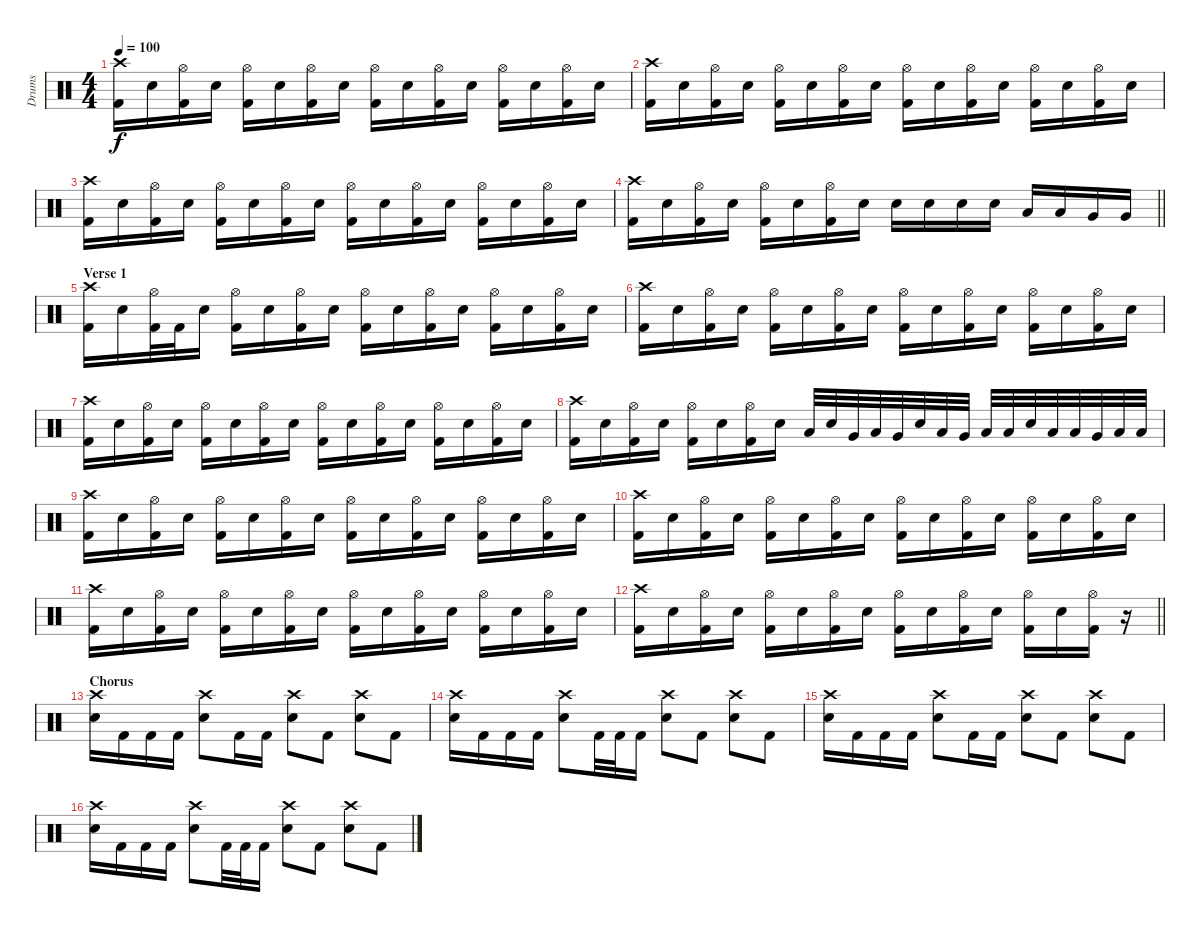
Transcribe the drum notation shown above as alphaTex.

\track ("Drums" "Drums") {instrument percussion}
\staff {score}
\articulation defaults
\ts (4 4)
\tempo 100
\clef neutral
\ks c
("Crash high (hit)" "Kick (hit) 2").16{dy f} "Snare (hit) 2".16 ("Hi-Hat (open)" "Kick (hit) 2").16 "Snare (hit) 2".16 ("Hi-Hat (open)" "Kick (hit) 2").16 "Snare (hit) 2".16 ("Hi-Hat (open)" "Kick (hit) 2").16 "Snare (hit) 2".16 ("Hi-Hat (open)" "Kick (hit) 2").16 "Snare (hit) 2".16 ("Hi-Hat (open)" "Kick (hit) 2").16 "Snare (hit) 2".16 ("Hi-Hat (open)" "Kick (hit) 2").16 "Snare (hit) 2".16 ("Hi-Hat (open)" "Kick (hit) 2").16 "Snare (hit) 2".16 |
("Crash high (hit)" "Kick (hit) 2").16 "Snare (hit) 2".16 ("Hi-Hat (open)" "Kick (hit) 2").16 "Snare (hit) 2".16 ("Hi-Hat (open)" "Kick (hit) 2").16 "Snare (hit) 2".16 ("Hi-Hat (open)" "Kick (hit) 2").16 "Snare (hit) 2".16 ("Hi-Hat (open)" "Kick (hit) 2").16 "Snare (hit) 2".16 ("Hi-Hat (open)" "Kick (hit) 2").16 "Snare (hit) 2".16 ("Hi-Hat (open)" "Kick (hit) 2").16 "Snare (hit) 2".16 ("Hi-Hat (open)" "Kick (hit) 2").16 "Snare (hit) 2".16 |
("Crash high (hit)" "Kick (hit) 2").16 "Snare (hit) 2".16 ("Hi-Hat (open)" "Kick (hit) 2").16 "Snare (hit) 2".16 ("Hi-Hat (open)" "Kick (hit) 2").16 "Snare (hit) 2".16 ("Hi-Hat (open)" "Kick (hit) 2").16 "Snare (hit) 2".16 ("Hi-Hat (open)" "Kick (hit) 2").16 "Snare (hit) 2".16 ("Hi-Hat (open)" "Kick (hit) 2").16 "Snare (hit) 2".16 ("Hi-Hat (open)" "Kick (hit) 2").16 "Snare (hit) 2".16 ("Hi-Hat (open)" "Kick (hit) 2").16 "Snare (hit) 2".16 |
\barLineRight lightlight
("Crash high (hit)" "Kick (hit) 2").16 "Snare (hit) 2".16 ("Hi-Hat (open)" "Kick (hit) 2").16 "Snare (hit) 2".16 ("Hi-Hat (open)" "Kick (hit) 2").16 "Snare (hit) 2".16 ("Hi-Hat (open)" "Kick (hit) 2").16 "Snare (hit) 2".16 "Snare (hit) 2".16 "Snare (hit) 2".16 "Snare (hit) 2".16 "Snare (hit) 2".16 "Low Tom (hit)".16 "Low Tom (hit)".16 "Very Low Tom (hit)".16 "Very Low Tom (hit)".16 |
\section ("" "Verse 1")
("Crash high (hit)" "Kick (hit) 2").16 "Snare (hit) 2".16 ("Hi-Hat (open)" "Kick (hit) 2").32 "Kick (hit) 2".32 "Snare (hit) 2".16 ("Hi-Hat (open)" "Kick (hit) 2").16 "Snare (hit) 2".16 ("Hi-Hat (open)" "Kick (hit) 2").16 "Snare (hit) 2".16 ("Hi-Hat (open)" "Kick (hit) 2").16 "Snare (hit) 2".16 ("Hi-Hat (open)" "Kick (hit) 2").16 "Snare (hit) 2".16 ("Hi-Hat (open)" "Kick (hit) 2").16 "Snare (hit) 2".16 ("Hi-Hat (open)" "Kick (hit) 2").16 "Snare (hit) 2".16 |
("Crash high (hit)" "Kick (hit) 2").16 "Snare (hit) 2".16 ("Hi-Hat (open)" "Kick (hit) 2").16 "Snare (hit) 2".16 ("Hi-Hat (open)" "Kick (hit) 2").16 "Snare (hit) 2".16 ("Hi-Hat (open)" "Kick (hit) 2").16 "Snare (hit) 2".16 ("Hi-Hat (open)" "Kick (hit) 2").16 "Snare (hit) 2".16 ("Hi-Hat (open)" "Kick (hit) 2").16 "Snare (hit) 2".16 ("Hi-Hat (open)" "Kick (hit) 2").16 "Snare (hit) 2".16 ("Hi-Hat (open)" "Kick (hit) 2").16 "Snare (hit) 2".16 |
("Crash high (hit)" "Kick (hit) 2").16 "Snare (hit) 2".16 ("Hi-Hat (open)" "Kick (hit) 2").16 "Snare (hit) 2".16 ("Hi-Hat (open)" "Kick (hit) 2").16 "Snare (hit) 2".16 ("Hi-Hat (open)" "Kick (hit) 2").16 "Snare (hit) 2".16 ("Hi-Hat (open)" "Kick (hit) 2").16 "Snare (hit) 2".16 ("Hi-Hat (open)" "Kick (hit) 2").16 "Snare (hit) 2".16 ("Hi-Hat (open)" "Kick (hit) 2").16 "Snare (hit) 2".16 ("Hi-Hat (open)" "Kick (hit) 2").16 "Snare (hit) 2".16 |
("Crash high (hit)" "Kick (hit) 2").16 "Snare (hit) 2".16 ("Hi-Hat (open)" "Kick (hit) 2").16 "Snare (hit) 2".16 ("Hi-Hat (open)" "Kick (hit) 2").16 "Snare (hit) 2".16 ("Hi-Hat (open)" "Kick (hit) 2").16 "Snare (hit) 2".16 "Low Tom (hit)".32 "Snare (hit) 2".32 "Very Low Tom (hit)".32 "Low Tom (hit)".32 "Very Low Tom (hit)".32 "Snare (hit) 2".32 "Low Tom (hit)".32 "Very Low Tom (hit)".32 "Low Floor Tom (hit)".32 "Low Floor Tom (hit)".32 "Snare (hit) 2".32 "Low Tom (hit)".32 "Low Tom (hit)".32 "Very Low Tom (hit)".32 "Low Floor Tom (hit)".32 "Low Floor Tom (hit)".32 |
("Crash high (hit)" "Kick (hit) 2").16 "Snare (hit) 2".16 ("Hi-Hat (open)" "Kick (hit) 2").16 "Snare (hit) 2".16 ("Hi-Hat (open)" "Kick (hit) 2").16 "Snare (hit) 2".16 ("Hi-Hat (open)" "Kick (hit) 2").16 "Snare (hit) 2".16 ("Hi-Hat (open)" "Kick (hit) 2").16 "Snare (hit) 2".16 ("Hi-Hat (open)" "Kick (hit) 2").16 "Snare (hit) 2".16 ("Hi-Hat (open)" "Kick (hit) 2").16 "Snare (hit) 2".16 ("Hi-Hat (open)" "Kick (hit) 2").16 "Snare (hit) 2".16 |
("Crash high (hit)" "Kick (hit) 2").16 "Snare (hit) 2".16 ("Hi-Hat (open)" "Kick (hit) 2").16 "Snare (hit) 2".16 ("Hi-Hat (open)" "Kick (hit) 2").16 "Snare (hit) 2".16 ("Hi-Hat (open)" "Kick (hit) 2").16 "Snare (hit) 2".16 ("Hi-Hat (open)" "Kick (hit) 2").16 "Snare (hit) 2".16 ("Hi-Hat (open)" "Kick (hit) 2").16 "Snare (hit) 2".16 ("Hi-Hat (open)" "Kick (hit) 2").16 "Snare (hit) 2".16 ("Hi-Hat (open)" "Kick (hit) 2").16 "Snare (hit) 2".16 |
("Crash high (hit)" "Kick (hit) 2").16 "Snare (hit) 2".16 ("Hi-Hat (open)" "Kick (hit) 2").16 "Snare (hit) 2".16 ("Hi-Hat (open)" "Kick (hit) 2").16 "Snare (hit) 2".16 ("Hi-Hat (open)" "Kick (hit) 2").16 "Snare (hit) 2".16 ("Hi-Hat (open)" "Kick (hit) 2").16 "Snare (hit) 2".16 ("Hi-Hat (open)" "Kick (hit) 2").16 "Snare (hit) 2".16 ("Hi-Hat (open)" "Kick (hit) 2").16 "Snare (hit) 2".16 ("Hi-Hat (open)" "Kick (hit) 2").16 "Snare (hit) 2".16 |
\barLineRight lightlight
("Crash high (hit)" "Kick (hit) 2").16 "Snare (hit) 2".16 ("Hi-Hat (open)" "Kick (hit) 2").16 "Snare (hit) 2".16 ("Hi-Hat (open)" "Kick (hit) 2").16 "Snare (hit) 2".16 ("Hi-Hat (open)" "Kick (hit) 2").16 "Snare (hit) 2".16 ("Hi-Hat (open)" "Kick (hit) 2").16 "Snare (hit) 2".16 ("Hi-Hat (open)" "Kick (hit) 2").16 "Snare (hit) 2".16 ("Hi-Hat (open)" "Kick (hit) 2").16 "Snare (hit) 2".16 ("Hi-Hat (open)" "Kick (hit) 2").16 r.16 |
\section ("" "Chorus")
("Crash high (hit)" "Snare (hit) 2").16 "Kick (hit) 2".16 "Kick (hit) 2".16 "Kick (hit) 2".16 ("Crash high (hit)" "Snare (hit) 2").8 "Kick (hit) 2".16 "Kick (hit) 2".16 ("Crash high (hit)" "Snare (hit) 2").8 "Kick (hit) 2".8 ("Crash high (hit)" "Snare (hit) 2").8 "Kick (hit) 2".8 |
("Crash high (hit)" "Snare (hit) 2").16 "Kick (hit) 2".16 "Kick (hit) 2".16 "Kick (hit) 2".16 ("Crash high (hit)" "Snare (hit) 2").8 "Kick (hit) 2".32 "Kick (hit) 2".32 "Kick (hit) 2".16 ("Crash high (hit)" "Snare (hit) 2").8 "Kick (hit) 2".8 ("Crash high (hit)" "Snare (hit) 2").8 "Kick (hit) 2".8 |
("Crash high (hit)" "Snare (hit) 2").16 "Kick (hit) 2".16 "Kick (hit) 2".16 "Kick (hit) 2".16 ("Crash high (hit)" "Snare (hit) 2").8 "Kick (hit) 2".16 "Kick (hit) 2".16 ("Crash high (hit)" "Snare (hit) 2").8 "Kick (hit) 2".8 ("Crash high (hit)" "Snare (hit) 2").8 "Kick (hit) 2".8 |
("Crash high (hit)" "Snare (hit) 2").16 "Kick (hit) 2".16 "Kick (hit) 2".16 "Kick (hit) 2".16 ("Crash high (hit)" "Snare (hit) 2").8 "Kick (hit) 2".32 "Kick (hit) 2".32 "Kick (hit) 2".16 ("Crash high (hit)" "Snare (hit) 2").8 "Kick (hit) 2".8 ("Crash high (hit)" "Snare (hit) 2").8 "Kick (hit) 2".8
